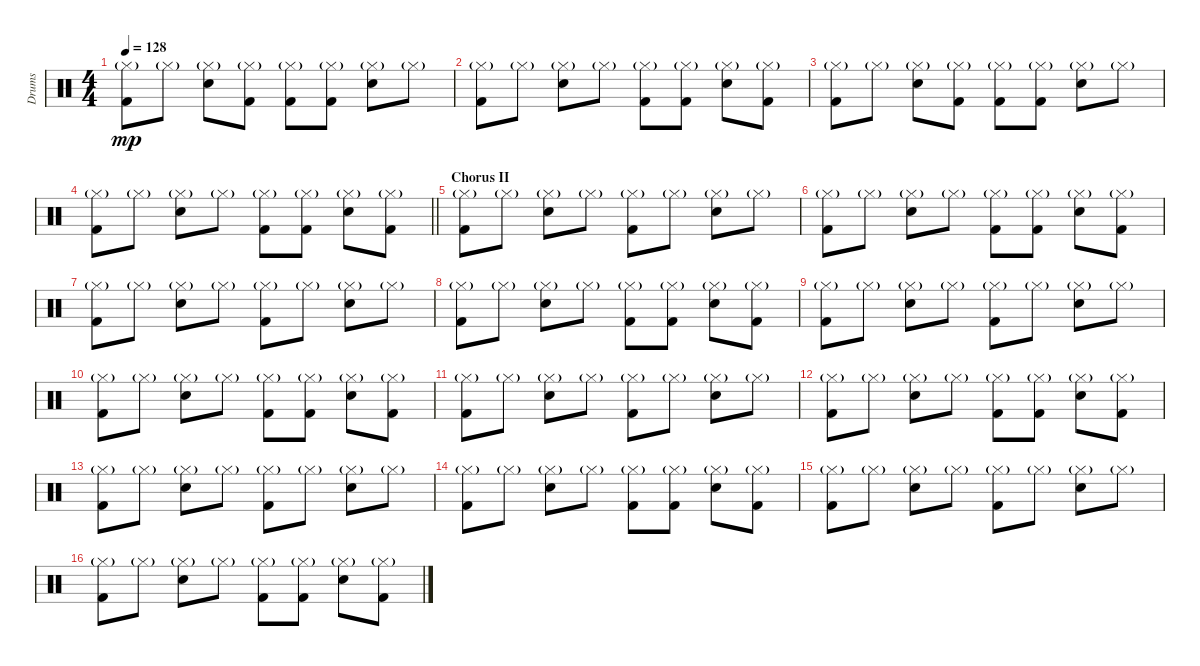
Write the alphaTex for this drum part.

\track ("Drums" "Drums") {instrument percussion}
\staff {score}
\articulation defaults
\ts (4 4)
\tempo 128
\clef neutral
\ks c
("Kick (hit) 2" "Hi-Hat (closed)"{g}).8{dy mp} "Hi-Hat (closed)"{g}.8 ("Snare (hit) 2" "Hi-Hat (closed)"{g}).8 ("Kick (hit) 2" "Hi-Hat (closed)"{g}).8 ("Kick (hit) 2" "Hi-Hat (closed)"{g}).8 ("Kick (hit) 2" "Hi-Hat (closed)"{g}).8 ("Snare (hit) 2" "Hi-Hat (closed)"{g}).8 "Hi-Hat (closed)"{g}.8 |
("Kick (hit) 2" "Hi-Hat (closed)"{g}).8 "Hi-Hat (closed)"{g}.8 ("Snare (hit) 2" "Hi-Hat (closed)"{g}).8 "Hi-Hat (closed)"{g}.8 ("Kick (hit) 2" "Hi-Hat (closed)"{g}).8 ("Kick (hit) 2" "Hi-Hat (closed)"{g}).8 ("Snare (hit) 2" "Hi-Hat (closed)"{g}).8 ("Kick (hit) 2" "Hi-Hat (closed)"{g}).8 |
("Kick (hit) 2" "Hi-Hat (closed)"{g}).8 "Hi-Hat (closed)"{g}.8 ("Snare (hit) 2" "Hi-Hat (closed)"{g}).8 ("Kick (hit) 2" "Hi-Hat (closed)"{g}).8 ("Kick (hit) 2" "Hi-Hat (closed)"{g}).8 ("Kick (hit) 2" "Hi-Hat (closed)"{g}).8 ("Snare (hit) 2" "Hi-Hat (closed)"{g}).8 "Hi-Hat (closed)"{g}.8 |
\barLineRight lightlight
("Kick (hit) 2" "Hi-Hat (closed)"{g}).8 "Hi-Hat (closed)"{g}.8 ("Snare (hit) 2" "Hi-Hat (closed)"{g}).8 "Hi-Hat (closed)"{g}.8 ("Kick (hit) 2" "Hi-Hat (closed)"{g}).8 ("Kick (hit) 2" "Hi-Hat (closed)"{g}).8 ("Snare (hit) 2" "Hi-Hat (closed)"{g}).8 ("Kick (hit) 2" "Hi-Hat (closed)"{g}).8 |
\section ("" "Chorus II")
("Kick (hit) 2" "Hi-Hat (closed)"{g}).8 "Hi-Hat (closed)"{g}.8 ("Snare (hit) 2" "Hi-Hat (closed)"{g}).8 "Hi-Hat (closed)"{g}.8 ("Kick (hit) 2" "Hi-Hat (closed)"{g}).8 "Hi-Hat (closed)"{g}.8 ("Snare (hit) 2" "Hi-Hat (closed)"{g}).8 "Hi-Hat (closed)"{g}.8 |
("Kick (hit) 2" "Hi-Hat (closed)"{g}).8 "Hi-Hat (closed)"{g}.8 ("Snare (hit) 2" "Hi-Hat (closed)"{g}).8 "Hi-Hat (closed)"{g}.8 ("Kick (hit) 2" "Hi-Hat (closed)"{g}).8 ("Kick (hit) 2" "Hi-Hat (closed)"{g}).8 ("Snare (hit) 2" "Hi-Hat (closed)"{g}).8 ("Kick (hit) 2" "Hi-Hat (closed)"{g}).8 |
("Kick (hit) 2" "Hi-Hat (closed)"{g}).8 "Hi-Hat (closed)"{g}.8 ("Snare (hit) 2" "Hi-Hat (closed)"{g}).8 "Hi-Hat (closed)"{g}.8 ("Kick (hit) 2" "Hi-Hat (closed)"{g}).8 "Hi-Hat (closed)"{g}.8 ("Snare (hit) 2" "Hi-Hat (closed)"{g}).8 "Hi-Hat (closed)"{g}.8 |
("Kick (hit) 2" "Hi-Hat (closed)"{g}).8 "Hi-Hat (closed)"{g}.8 ("Snare (hit) 2" "Hi-Hat (closed)"{g}).8 "Hi-Hat (closed)"{g}.8 ("Kick (hit) 2" "Hi-Hat (closed)"{g}).8 ("Kick (hit) 2" "Hi-Hat (closed)"{g}).8 ("Snare (hit) 2" "Hi-Hat (closed)"{g}).8 ("Kick (hit) 2" "Hi-Hat (closed)"{g}).8 |
("Kick (hit) 2" "Hi-Hat (closed)"{g}).8 "Hi-Hat (closed)"{g}.8 ("Snare (hit) 2" "Hi-Hat (closed)"{g}).8 "Hi-Hat (closed)"{g}.8 ("Kick (hit) 2" "Hi-Hat (closed)"{g}).8 "Hi-Hat (closed)"{g}.8 ("Snare (hit) 2" "Hi-Hat (closed)"{g}).8 "Hi-Hat (closed)"{g}.8 |
("Kick (hit) 2" "Hi-Hat (closed)"{g}).8 "Hi-Hat (closed)"{g}.8 ("Snare (hit) 2" "Hi-Hat (closed)"{g}).8 "Hi-Hat (closed)"{g}.8 ("Kick (hit) 2" "Hi-Hat (closed)"{g}).8 ("Kick (hit) 2" "Hi-Hat (closed)"{g}).8 ("Snare (hit) 2" "Hi-Hat (closed)"{g}).8 ("Kick (hit) 2" "Hi-Hat (closed)"{g}).8 |
("Kick (hit) 2" "Hi-Hat (closed)"{g}).8 "Hi-Hat (closed)"{g}.8 ("Snare (hit) 2" "Hi-Hat (closed)"{g}).8 "Hi-Hat (closed)"{g}.8 ("Kick (hit) 2" "Hi-Hat (closed)"{g}).8 "Hi-Hat (closed)"{g}.8 ("Snare (hit) 2" "Hi-Hat (closed)"{g}).8 "Hi-Hat (closed)"{g}.8 |
("Kick (hit) 2" "Hi-Hat (closed)"{g}).8 "Hi-Hat (closed)"{g}.8 ("Snare (hit) 2" "Hi-Hat (closed)"{g}).8 "Hi-Hat (closed)"{g}.8 ("Kick (hit) 2" "Hi-Hat (closed)"{g}).8 ("Kick (hit) 2" "Hi-Hat (closed)"{g}).8 ("Snare (hit) 2" "Hi-Hat (closed)"{g}).8 ("Kick (hit) 2" "Hi-Hat (closed)"{g}).8 |
("Kick (hit) 2" "Hi-Hat (closed)"{g}).8 "Hi-Hat (closed)"{g}.8 ("Snare (hit) 2" "Hi-Hat (closed)"{g}).8 "Hi-Hat (closed)"{g}.8 ("Kick (hit) 2" "Hi-Hat (closed)"{g}).8 "Hi-Hat (closed)"{g}.8 ("Snare (hit) 2" "Hi-Hat (closed)"{g}).8 "Hi-Hat (closed)"{g}.8 |
("Kick (hit) 2" "Hi-Hat (closed)"{g}).8 "Hi-Hat (closed)"{g}.8 ("Snare (hit) 2" "Hi-Hat (closed)"{g}).8 "Hi-Hat (closed)"{g}.8 ("Kick (hit) 2" "Hi-Hat (closed)"{g}).8 ("Kick (hit) 2" "Hi-Hat (closed)"{g}).8 ("Snare (hit) 2" "Hi-Hat (closed)"{g}).8 ("Kick (hit) 2" "Hi-Hat (closed)"{g}).8 |
("Kick (hit) 2" "Hi-Hat (closed)"{g}).8 "Hi-Hat (closed)"{g}.8 ("Snare (hit) 2" "Hi-Hat (closed)"{g}).8 "Hi-Hat (closed)"{g}.8 ("Kick (hit) 2" "Hi-Hat (closed)"{g}).8 "Hi-Hat (closed)"{g}.8 ("Snare (hit) 2" "Hi-Hat (closed)"{g}).8 "Hi-Hat (closed)"{g}.8 |
("Kick (hit) 2" "Hi-Hat (closed)"{g}).8 "Hi-Hat (closed)"{g}.8 ("Snare (hit) 2" "Hi-Hat (closed)"{g}).8 "Hi-Hat (closed)"{g}.8 ("Kick (hit) 2" "Hi-Hat (closed)"{g}).8 ("Kick (hit) 2" "Hi-Hat (closed)"{g}).8 ("Snare (hit) 2" "Hi-Hat (closed)"{g}).8 ("Kick (hit) 2" "Hi-Hat (closed)"{g}).8
